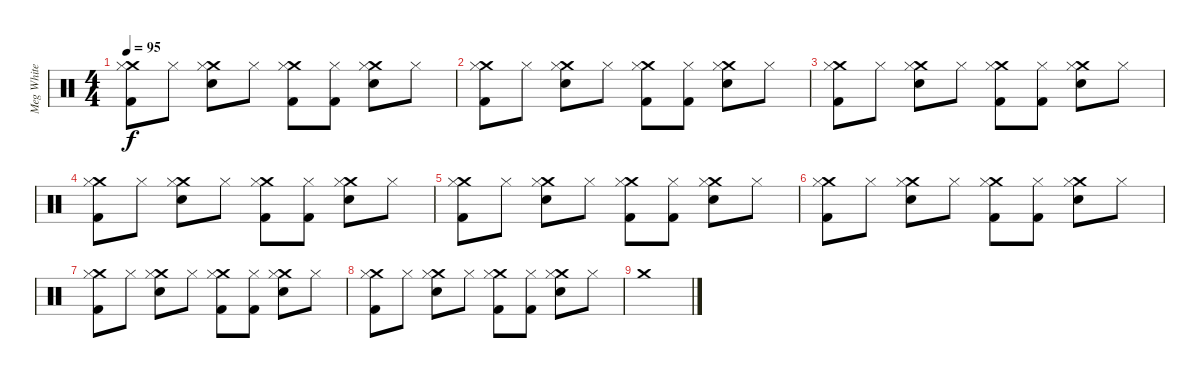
\track ("Meg White - Drums" "Meg White ") {instrument percussion}
\staff {score}
\articulation defaults
\ts (4 4)
\tempo 95
\clef neutral
\ks c
("Crash medium (hit)" "Hi-Hat (closed)" "Kick (hit) 2").8{dy f} "Hi-Hat (closed)".8 ("Crash medium (hit)" "Snare (hit) 2" "Hi-Hat (closed)").8 "Hi-Hat (closed)".8 ("Crash medium (hit)" "Hi-Hat (closed)" "Kick (hit) 2").8 ("Hi-Hat (closed)" "Kick (hit) 2").8 ("Crash medium (hit)" "Snare (hit) 2" "Hi-Hat (closed)").8 "Hi-Hat (closed)".8 |
("Crash medium (hit)" "Hi-Hat (closed)" "Kick (hit) 2").8 "Hi-Hat (closed)".8 ("Crash medium (hit)" "Snare (hit) 2" "Hi-Hat (closed)").8 "Hi-Hat (closed)".8 ("Crash medium (hit)" "Hi-Hat (closed)" "Kick (hit) 2").8 ("Hi-Hat (closed)" "Kick (hit) 2").8 ("Crash medium (hit)" "Snare (hit) 2" "Hi-Hat (closed)").8 "Hi-Hat (closed)".8 |
("Crash medium (hit)" "Hi-Hat (closed)" "Kick (hit) 2").8 "Hi-Hat (closed)".8 ("Crash medium (hit)" "Snare (hit) 2" "Hi-Hat (closed)").8 "Hi-Hat (closed)".8 ("Crash medium (hit)" "Hi-Hat (closed)" "Kick (hit) 2").8 ("Hi-Hat (closed)" "Kick (hit) 2").8 ("Crash medium (hit)" "Snare (hit) 2" "Hi-Hat (closed)").8 "Hi-Hat (closed)".8 |
("Crash medium (hit)" "Hi-Hat (closed)" "Kick (hit) 2").8 "Hi-Hat (closed)".8 ("Crash medium (hit)" "Snare (hit) 2" "Hi-Hat (closed)").8 "Hi-Hat (closed)".8 ("Crash medium (hit)" "Hi-Hat (closed)" "Kick (hit) 2").8 ("Hi-Hat (closed)" "Kick (hit) 2").8 ("Crash medium (hit)" "Snare (hit) 2" "Hi-Hat (closed)").8 "Hi-Hat (closed)".8 |
("Crash medium (hit)" "Hi-Hat (closed)" "Kick (hit) 2").8 "Hi-Hat (closed)".8 ("Crash medium (hit)" "Snare (hit) 2" "Hi-Hat (closed)").8 "Hi-Hat (closed)".8 ("Crash medium (hit)" "Hi-Hat (closed)" "Kick (hit) 2").8 ("Hi-Hat (closed)" "Kick (hit) 2").8 ("Crash medium (hit)" "Snare (hit) 2" "Hi-Hat (closed)").8 "Hi-Hat (closed)".8 |
("Crash medium (hit)" "Hi-Hat (closed)" "Kick (hit) 2").8 "Hi-Hat (closed)".8 ("Crash medium (hit)" "Snare (hit) 2" "Hi-Hat (closed)").8 "Hi-Hat (closed)".8 ("Crash medium (hit)" "Hi-Hat (closed)" "Kick (hit) 2").8 ("Hi-Hat (closed)" "Kick (hit) 2").8 ("Crash medium (hit)" "Snare (hit) 2" "Hi-Hat (closed)").8 "Hi-Hat (closed)".8 |
("Crash medium (hit)" "Hi-Hat (closed)" "Kick (hit) 2").8 "Hi-Hat (closed)".8 ("Crash medium (hit)" "Snare (hit) 2" "Hi-Hat (closed)").8 "Hi-Hat (closed)".8 ("Crash medium (hit)" "Hi-Hat (closed)" "Kick (hit) 2").8 ("Hi-Hat (closed)" "Kick (hit) 2").8 ("Crash medium (hit)" "Snare (hit) 2" "Hi-Hat (closed)").8 "Hi-Hat (closed)".8 |
("Crash medium (hit)" "Hi-Hat (closed)" "Kick (hit) 2").8 "Hi-Hat (closed)".8 ("Crash medium (hit)" "Snare (hit) 2" "Hi-Hat (closed)").8 "Hi-Hat (closed)".8 ("Crash medium (hit)" "Hi-Hat (closed)" "Kick (hit) 2").8 ("Hi-Hat (closed)" "Kick (hit) 2").8 ("Crash medium (hit)" "Snare (hit) 2" "Hi-Hat (closed)").8 "Hi-Hat (closed)".8 |
"Crash medium (hit)".1
